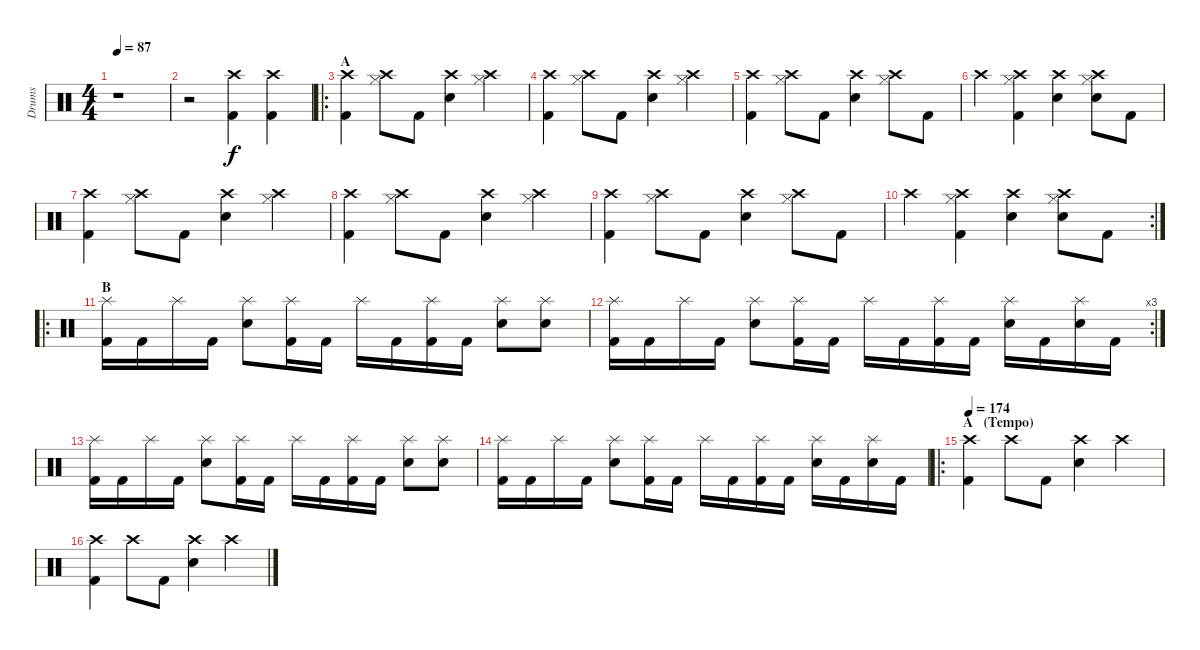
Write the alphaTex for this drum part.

\track ("Drums" "Drums") {instrument percussion}
\staff {score}
\articulation defaults
\ts (4 4)
\tempo 87
\clef neutral
\ks c
r.1{dy f} |
r.2 ("Crash high (hit)" "Kick (hit) 2").4 ("Crash high (hit)" "Kick (hit) 2").4 |
\ro
\section ("" "A")
("Crash high (hit)" "Kick (hit) 2").4 ("Crash high (hit)" "Hi-Hat (closed)").8 "Kick (hit) 2".8 ("Crash high (hit)" "Electric Snare (hit)").4 ("Crash high (hit)" "Hi-Hat (closed)").4 |
("Crash high (hit)" "Kick (hit) 2").4 ("Crash high (hit)" "Hi-Hat (closed)").8 "Kick (hit) 2".8 ("Crash high (hit)" "Electric Snare (hit)").4 ("Crash high (hit)" "Hi-Hat (closed)").4 |
("Crash high (hit)" "Kick (hit) 2").4 ("Crash high (hit)" "Hi-Hat (closed)").8 "Kick (hit) 2".8 ("Crash high (hit)" "Electric Snare (hit)").4 ("Crash high (hit)" "Hi-Hat (closed)").8 "Kick (hit) 2".8 |
"Crash high (hit)".4 ("Crash high (hit)" "Hi-Hat (closed)" "Kick (hit) 2").4 ("Crash high (hit)" "Electric Snare (hit)").4 ("Crash high (hit)" "Hi-Hat (closed)" "Electric Snare (hit)").8 "Kick (hit) 2".8 |
("Crash high (hit)" "Kick (hit) 2").4 ("Crash high (hit)" "Hi-Hat (closed)").8 "Kick (hit) 2".8 ("Crash high (hit)" "Electric Snare (hit)").4 ("Crash high (hit)" "Hi-Hat (closed)").4 |
("Crash high (hit)" "Kick (hit) 2").4 ("Crash high (hit)" "Hi-Hat (closed)").8 "Kick (hit) 2".8 ("Crash high (hit)" "Electric Snare (hit)").4 ("Crash high (hit)" "Hi-Hat (closed)").4 |
("Crash high (hit)" "Kick (hit) 2").4 ("Crash high (hit)" "Hi-Hat (closed)").8 "Kick (hit) 2".8 ("Crash high (hit)" "Electric Snare (hit)").4 ("Crash high (hit)" "Hi-Hat (closed)").8 "Kick (hit) 2".8 |
\rc 2 "Crash high (hit)".4
("Crash high (hit)" "Hi-Hat (closed)" "Kick (hit) 2").4 ("Crash high (hit)" "Electric Snare (hit)").4 ("Crash high (hit)" "Hi-Hat (closed)" "Electric Snare (hit)").8 "Kick (hit) 2".8 |
\ro
\section ("" "B")
("Splash (hit)" "Kick (hit) 2").16 "Kick (hit) 2".16 "Splash (hit)".16 "Kick (hit) 2".16 ("Splash (hit)" "Electric Snare (hit)").8 ("Splash (hit)" "Kick (hit) 2").16 "Kick (hit) 2".16 "Splash (hit)".16 "Kick (hit) 2".16 ("Splash (hit)" "Kick (hit) 2").16 "Kick (hit) 2".16 ("Splash (hit)" "Electric Snare (hit)").8 ("Splash (hit)" "Electric Snare (hit)").8 |
\rc 3
("Splash (hit)" "Kick (hit) 2").16 "Kick (hit) 2".16 "Splash (hit)".16 "Kick (hit) 2".16 ("Splash (hit)" "Electric Snare (hit)").8 ("Splash (hit)" "Kick (hit) 2").16 "Kick (hit) 2".16 "Splash (hit)".16 "Kick (hit) 2".16 ("Splash (hit)" "Kick (hit) 2").16 "Kick (hit) 2".16 ("Splash (hit)" "Electric Snare (hit)").16 "Kick (hit) 2".16 ("Splash (hit)" "Electric Snare (hit)").16 "Kick (hit) 2".16 |
("Splash (hit)" "Kick (hit) 2").16 "Kick (hit) 2".16 "Splash (hit)".16 "Kick (hit) 2".16 ("Splash (hit)" "Electric Snare (hit)").8 ("Splash (hit)" "Kick (hit) 2").16 "Kick (hit) 2".16 "Splash (hit)".16 "Kick (hit) 2".16 ("Splash (hit)" "Kick (hit) 2").16 "Kick (hit) 2".16 ("Splash (hit)" "Electric Snare (hit)").8 ("Splash (hit)" "Electric Snare (hit)").8 |
("Splash (hit)" "Kick (hit) 2").16 "Kick (hit) 2".16 "Splash (hit)".16 "Kick (hit) 2".16 ("Splash (hit)" "Electric Snare (hit)").8 ("Splash (hit)" "Kick (hit) 2").16 "Kick (hit) 2".16 "Splash (hit)".16 "Kick (hit) 2".16 ("Splash (hit)" "Kick (hit) 2").16 "Kick (hit) 2".16 ("Splash (hit)" "Electric Snare (hit)").16 "Kick (hit) 2".16 ("Splash (hit)" "Electric Snare (hit)").16 "Kick (hit) 2".16 |
\ro
\section ("" "A   (Tempo)")
\tempo 174
("Crash high (hit)" "Kick (hit) 2").4 "Crash high (hit)".8 "Kick (hit) 2".8 ("Crash high (hit)" "Electric Snare (hit)").4 "Crash high (hit)".4 |
("Crash high (hit)" "Kick (hit) 2").4 "Crash high (hit)".8 "Kick (hit) 2".8 ("Crash high (hit)" "Electric Snare (hit)").4 "Crash high (hit)".4
